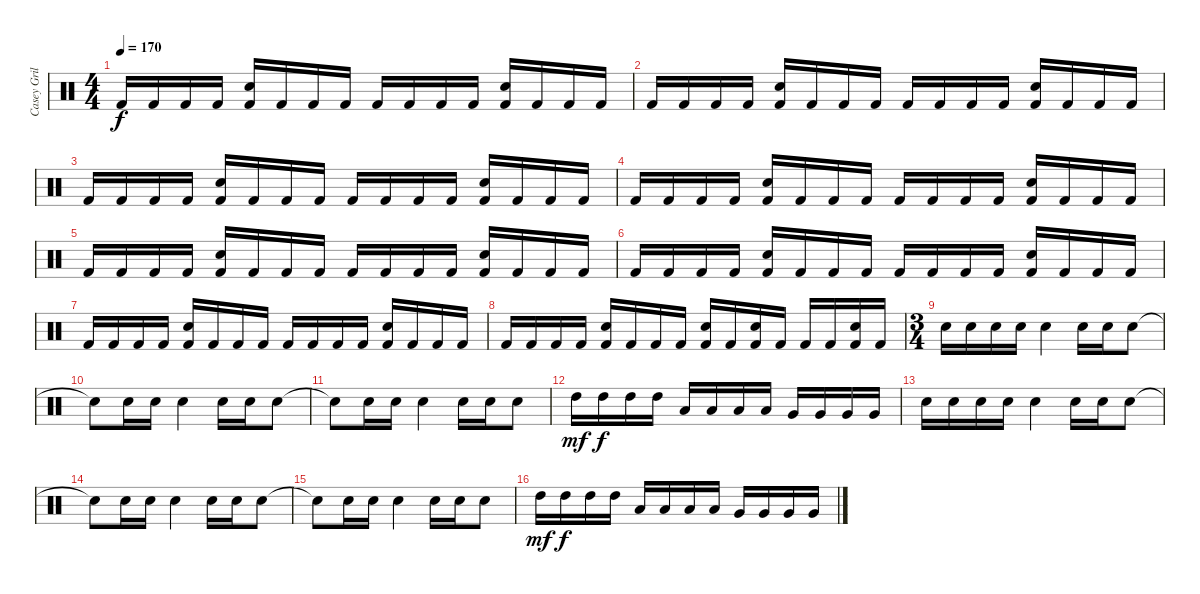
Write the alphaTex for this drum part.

\track ("Casey Grillo" "Casey Gril") {instrument percussion}
\staff {score}
\articulation defaults
\ts (4 4)
\tempo 170
\clef neutral
\ks c "Kick (hit) 2".16{dy f} "Kick (hit) 2".16 "Kick (hit) 2".16 "Kick (hit) 2".16
("Snare (hit) 2" "Kick (hit) 2").16 "Kick (hit) 2".16 "Kick (hit) 2".16 "Kick (hit) 2".16 "Kick (hit) 2".16 "Kick (hit) 2".16 "Kick (hit) 2".16 "Kick (hit) 2".16 ("Snare (hit) 2" "Kick (hit) 2").16 "Kick (hit) 2".16 "Kick (hit) 2".16 "Kick (hit) 2".16 |
"Kick (hit) 2".16 "Kick (hit) 2".16 "Kick (hit) 2".16 "Kick (hit) 2".16 ("Snare (hit) 2" "Kick (hit) 2").16 "Kick (hit) 2".16 "Kick (hit) 2".16 "Kick (hit) 2".16 "Kick (hit) 2".16 "Kick (hit) 2".16 "Kick (hit) 2".16 "Kick (hit) 2".16 ("Snare (hit) 2" "Kick (hit) 2").16 "Kick (hit) 2".16 "Kick (hit) 2".16 "Kick (hit) 2".16 |
"Kick (hit) 2".16 "Kick (hit) 2".16 "Kick (hit) 2".16 "Kick (hit) 2".16 ("Snare (hit) 2" "Kick (hit) 2").16 "Kick (hit) 2".16 "Kick (hit) 2".16 "Kick (hit) 2".16 "Kick (hit) 2".16 "Kick (hit) 2".16 "Kick (hit) 2".16 "Kick (hit) 2".16 ("Snare (hit) 2" "Kick (hit) 2").16 "Kick (hit) 2".16 "Kick (hit) 2".16 "Kick (hit) 2".16 |
"Kick (hit) 2".16 "Kick (hit) 2".16 "Kick (hit) 2".16 "Kick (hit) 2".16 ("Snare (hit) 2" "Kick (hit) 2").16 "Kick (hit) 2".16 "Kick (hit) 2".16 "Kick (hit) 2".16 "Kick (hit) 2".16 "Kick (hit) 2".16 "Kick (hit) 2".16 "Kick (hit) 2".16 ("Snare (hit) 2" "Kick (hit) 2").16 "Kick (hit) 2".16 "Kick (hit) 2".16 "Kick (hit) 2".16 |
"Kick (hit) 2".16 "Kick (hit) 2".16 "Kick (hit) 2".16 "Kick (hit) 2".16 ("Snare (hit) 2" "Kick (hit) 2").16 "Kick (hit) 2".16 "Kick (hit) 2".16 "Kick (hit) 2".16 "Kick (hit) 2".16 "Kick (hit) 2".16 "Kick (hit) 2".16 "Kick (hit) 2".16 ("Snare (hit) 2" "Kick (hit) 2").16 "Kick (hit) 2".16 "Kick (hit) 2".16 "Kick (hit) 2".16 |
"Kick (hit) 2".16 "Kick (hit) 2".16 "Kick (hit) 2".16 "Kick (hit) 2".16 ("Snare (hit) 2" "Kick (hit) 2").16 "Kick (hit) 2".16 "Kick (hit) 2".16 "Kick (hit) 2".16 "Kick (hit) 2".16 "Kick (hit) 2".16 "Kick (hit) 2".16 "Kick (hit) 2".16 ("Snare (hit) 2" "Kick (hit) 2").16 "Kick (hit) 2".16 "Kick (hit) 2".16 "Kick (hit) 2".16 |
"Kick (hit) 2".16 "Kick (hit) 2".16 "Kick (hit) 2".16 "Kick (hit) 2".16 ("Snare (hit) 2" "Kick (hit) 2").16 "Kick (hit) 2".16 "Kick (hit) 2".16 "Kick (hit) 2".16 "Kick (hit) 2".16 "Kick (hit) 2".16 "Kick (hit) 2".16 "Kick (hit) 2".16 ("Snare (hit) 2" "Kick (hit) 2").16 "Kick (hit) 2".16 "Kick (hit) 2".16 "Kick (hit) 2".16 |
"Kick (hit) 2".16 "Kick (hit) 2".16 "Kick (hit) 2".16 "Kick (hit) 2".16 ("Snare (hit) 2" "Kick (hit) 2").16 "Kick (hit) 2".16 "Kick (hit) 2".16 "Kick (hit) 2".16 ("Snare (hit) 2" "Kick (hit) 2").16 "Kick (hit) 2".16 ("Snare (hit) 2" "Kick (hit) 2").16 "Kick (hit) 2".16 "Kick (hit) 2".16 "Kick (hit) 2".16 ("Snare (hit) 2" "Kick (hit) 2").16 "Kick (hit) 2".16 |
\ts (3 4)
"Snare (hit) 2".16 "Snare (hit) 2".16 "Snare (hit) 2".16 "Snare (hit) 2".16 "Snare (hit) 2".4 "Snare (hit) 2".16 "Snare (hit) 2".16 "Snare (hit) 2".8 |
"Snare (hit)"{t}.8 "Snare (hit) 2".16 "Snare (hit) 2".16 "Snare (hit) 2".4 "Snare (hit) 2".16 "Snare (hit) 2".16 "Snare (hit) 2".8 |
"Snare (hit)"{t}.8 "Snare (hit) 2".16 "Snare (hit) 2".16 "Snare (hit) 2".4 "Snare (hit) 2".16 "Snare (hit) 2".16 "Snare (hit) 2".8 |
"High Tom (hit)".16{dy mf} "High Tom (hit)".16{dy f} "High Tom (hit)".16 "High Tom (hit)".16 "Low Tom (hit)".16 "Low Tom (hit)".16 "Low Tom (hit)".16 "Low Tom (hit)".16 "Very Low Tom (hit)".16 "Very Low Tom (hit)".16 "Very Low Tom (hit)".16 "Very Low Tom (hit)".16 |
"Snare (hit) 2".16 "Snare (hit) 2".16 "Snare (hit) 2".16 "Snare (hit) 2".16 "Snare (hit) 2".4 "Snare (hit) 2".16 "Snare (hit) 2".16 "Snare (hit) 2".8 |
"Snare (hit)"{t}.8 "Snare (hit) 2".16 "Snare (hit) 2".16 "Snare (hit) 2".4 "Snare (hit) 2".16 "Snare (hit) 2".16 "Snare (hit) 2".8 |
"Snare (hit)"{t}.8 "Snare (hit) 2".16 "Snare (hit) 2".16 "Snare (hit) 2".4 "Snare (hit) 2".16 "Snare (hit) 2".16 "Snare (hit) 2".8 |
"High Tom (hit)".16{dy mf} "High Tom (hit)".16{dy f} "High Tom (hit)".16 "High Tom (hit)".16 "Low Tom (hit)".16 "Low Tom (hit)".16 "Low Tom (hit)".16 "Low Tom (hit)".16 "Very Low Tom (hit)".16 "Very Low Tom (hit)".16 "Very Low Tom (hit)".16 "Very Low Tom (hit)".16
